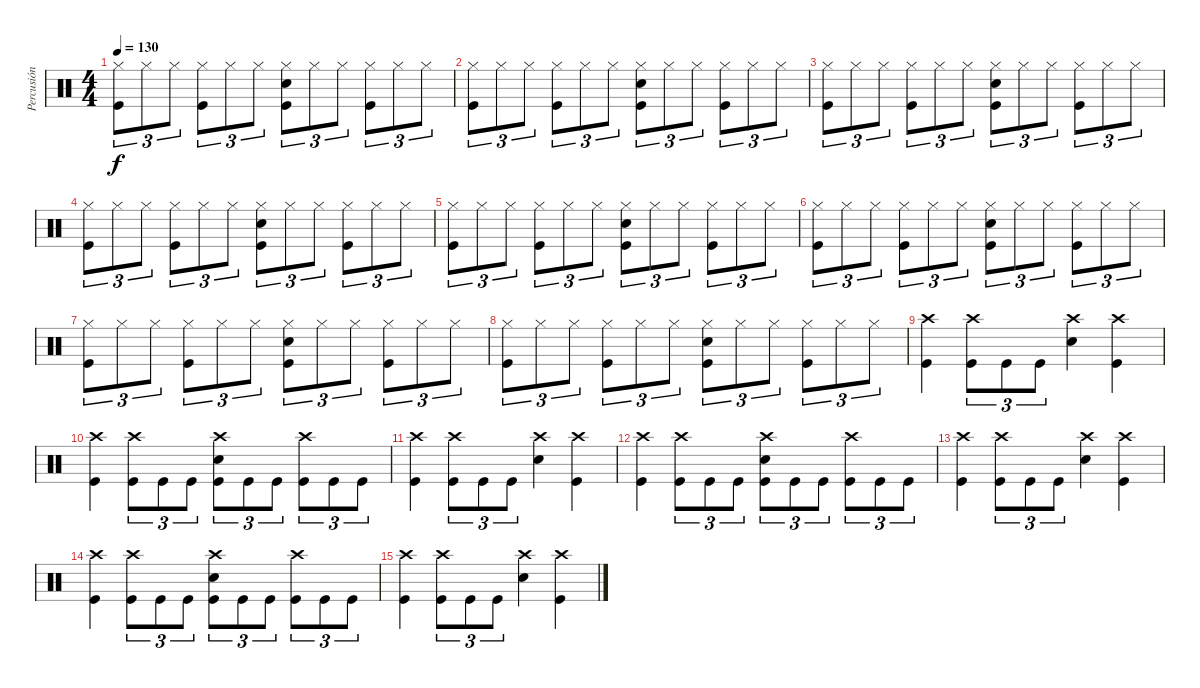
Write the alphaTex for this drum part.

\track ("Percusión" "Percusión") {instrument percussion}
\staff {score}
\articulation defaults
\ts (4 4)
\tempo 130
\clef neutral
\ks c
("Hi-Hat (closed)" "Kick (hit)").8{tu (3 2) dy f} "Hi-Hat (closed)".8{tu (3 2)} "Hi-Hat (closed)".8{tu (3 2)} ("Hi-Hat (closed)" "Kick (hit)").8{tu (3 2)} "Hi-Hat (closed)".8{tu (3 2)} "Hi-Hat (closed)".8{tu (3 2)} ("Hi-Hat (closed)" "Snare (hit) 2" "Kick (hit)").8{tu (3 2)} "Hi-Hat (closed)".8{tu (3 2)} "Hi-Hat (closed)".8{tu (3 2)} ("Hi-Hat (closed)" "Kick (hit)").8{tu (3 2)} "Hi-Hat (closed)".8{tu (3 2)} "Hi-Hat (closed)".8{tu (3 2)} |
("Hi-Hat (closed)" "Kick (hit)").8{tu (3 2)} "Hi-Hat (closed)".8{tu (3 2)} "Hi-Hat (closed)".8{tu (3 2)} ("Hi-Hat (closed)" "Kick (hit)").8{tu (3 2)} "Hi-Hat (closed)".8{tu (3 2)} "Hi-Hat (closed)".8{tu (3 2)} ("Hi-Hat (closed)" "Snare (hit) 2" "Kick (hit)").8{tu (3 2)} "Hi-Hat (closed)".8{tu (3 2)} "Hi-Hat (closed)".8{tu (3 2)} ("Hi-Hat (closed)" "Kick (hit)").8{tu (3 2)} "Hi-Hat (closed)".8{tu (3 2)} "Hi-Hat (closed)".8{tu (3 2)} |
("Hi-Hat (closed)" "Kick (hit)").8{tu (3 2)} "Hi-Hat (closed)".8{tu (3 2)} "Hi-Hat (closed)".8{tu (3 2)} ("Hi-Hat (closed)" "Kick (hit)").8{tu (3 2)} "Hi-Hat (closed)".8{tu (3 2)} "Hi-Hat (closed)".8{tu (3 2)} ("Hi-Hat (closed)" "Snare (hit) 2" "Kick (hit)").8{tu (3 2)} "Hi-Hat (closed)".8{tu (3 2)} "Hi-Hat (closed)".8{tu (3 2)} ("Hi-Hat (closed)" "Kick (hit)").8{tu (3 2)} "Hi-Hat (closed)".8{tu (3 2)} "Hi-Hat (closed)".8{tu (3 2)} |
("Hi-Hat (closed)" "Kick (hit)").8{tu (3 2)} "Hi-Hat (closed)".8{tu (3 2)} "Hi-Hat (closed)".8{tu (3 2)} ("Hi-Hat (closed)" "Kick (hit)").8{tu (3 2)} "Hi-Hat (closed)".8{tu (3 2)} "Hi-Hat (closed)".8{tu (3 2)} ("Hi-Hat (closed)" "Snare (hit) 2" "Kick (hit)").8{tu (3 2)} "Hi-Hat (closed)".8{tu (3 2)} "Hi-Hat (closed)".8{tu (3 2)} ("Hi-Hat (closed)" "Kick (hit)").8{tu (3 2)} "Hi-Hat (closed)".8{tu (3 2)} "Hi-Hat (closed)".8{tu (3 2)} |
("Hi-Hat (closed)" "Kick (hit)").8{tu (3 2)} "Hi-Hat (closed)".8{tu (3 2)} "Hi-Hat (closed)".8{tu (3 2)} ("Hi-Hat (closed)" "Kick (hit)").8{tu (3 2)} "Hi-Hat (closed)".8{tu (3 2)} "Hi-Hat (closed)".8{tu (3 2)} ("Hi-Hat (closed)" "Snare (hit) 2" "Kick (hit)").8{tu (3 2)} "Hi-Hat (closed)".8{tu (3 2)} "Hi-Hat (closed)".8{tu (3 2)} ("Hi-Hat (closed)" "Kick (hit)").8{tu (3 2)} "Hi-Hat (closed)".8{tu (3 2)} "Hi-Hat (closed)".8{tu (3 2)} |
("Hi-Hat (closed)" "Kick (hit)").8{tu (3 2)} "Hi-Hat (closed)".8{tu (3 2)} "Hi-Hat (closed)".8{tu (3 2)} ("Hi-Hat (closed)" "Kick (hit)").8{tu (3 2)} "Hi-Hat (closed)".8{tu (3 2)} "Hi-Hat (closed)".8{tu (3 2)} ("Hi-Hat (closed)" "Snare (hit) 2" "Kick (hit)").8{tu (3 2)} "Hi-Hat (closed)".8{tu (3 2)} "Hi-Hat (closed)".8{tu (3 2)} ("Hi-Hat (closed)" "Kick (hit)").8{tu (3 2)} "Hi-Hat (closed)".8{tu (3 2)} "Hi-Hat (closed)".8{tu (3 2)} |
("Hi-Hat (closed)" "Kick (hit)").8{tu (3 2)} "Hi-Hat (closed)".8{tu (3 2)} "Hi-Hat (closed)".8{tu (3 2)} ("Hi-Hat (closed)" "Kick (hit)").8{tu (3 2)} "Hi-Hat (closed)".8{tu (3 2)} "Hi-Hat (closed)".8{tu (3 2)} ("Hi-Hat (closed)" "Snare (hit) 2" "Kick (hit)").8{tu (3 2)} "Hi-Hat (closed)".8{tu (3 2)} "Hi-Hat (closed)".8{tu (3 2)} ("Hi-Hat (closed)" "Kick (hit)").8{tu (3 2)} "Hi-Hat (closed)".8{tu (3 2)} "Hi-Hat (closed)".8{tu (3 2)} |
("Hi-Hat (closed)" "Kick (hit)").8{tu (3 2)} "Hi-Hat (closed)".8{tu (3 2)} "Hi-Hat (closed)".8{tu (3 2)} ("Hi-Hat (closed)" "Kick (hit)").8{tu (3 2)} "Hi-Hat (closed)".8{tu (3 2)} "Hi-Hat (closed)".8{tu (3 2)} ("Hi-Hat (closed)" "Snare (hit) 2" "Kick (hit)").8{tu (3 2)} "Hi-Hat (closed)".8{tu (3 2)} "Hi-Hat (closed)".8{tu (3 2)} ("Hi-Hat (closed)" "Kick (hit)").8{tu (3 2)} "Hi-Hat (closed)".8{tu (3 2)} "Hi-Hat (closed)".8{tu (3 2)} |
("Crash high (hit)" "Kick (hit)").4 ("Crash high (hit)" "Kick (hit)").8{tu (3 2)} "Kick (hit)".8{tu (3 2)} "Kick (hit)".8{tu (3 2)} ("Snare (hit) 2" "Crash high (hit)").4 ("Crash high (hit)" "Kick (hit)").4 |
("Crash high (hit)" "Kick (hit)").4 ("Crash high (hit)" "Kick (hit)").8{tu (3 2)} "Kick (hit)".8{tu (3 2)} "Kick (hit)".8{tu (3 2)} ("Snare (hit) 2" "Crash high (hit)" "Kick (hit)").8{tu (3 2)} "Kick (hit)".8{tu (3 2)} "Kick (hit)".8{tu (3 2)} ("Crash high (hit)" "Kick (hit)").8{tu (3 2)} "Kick (hit)".8{tu (3 2)} "Kick (hit)".8{tu (3 2)} |
("Crash high (hit)" "Kick (hit)").4 ("Crash high (hit)" "Kick (hit)").8{tu (3 2)} "Kick (hit)".8{tu (3 2)} "Kick (hit)".8{tu (3 2)} ("Snare (hit) 2" "Crash high (hit)").4 ("Crash high (hit)" "Kick (hit)").4 |
("Crash high (hit)" "Kick (hit)").4 ("Crash high (hit)" "Kick (hit)").8{tu (3 2)} "Kick (hit)".8{tu (3 2)} "Kick (hit)".8{tu (3 2)} ("Snare (hit) 2" "Crash high (hit)" "Kick (hit)").8{tu (3 2)} "Kick (hit)".8{tu (3 2)} "Kick (hit)".8{tu (3 2)} ("Crash high (hit)" "Kick (hit)").8{tu (3 2)} "Kick (hit)".8{tu (3 2)} "Kick (hit)".8{tu (3 2)} |
("Crash high (hit)" "Kick (hit)").4 ("Crash high (hit)" "Kick (hit)").8{tu (3 2)} "Kick (hit)".8{tu (3 2)} "Kick (hit)".8{tu (3 2)} ("Snare (hit) 2" "Crash high (hit)").4 ("Crash high (hit)" "Kick (hit)").4 |
("Crash high (hit)" "Kick (hit)").4 ("Crash high (hit)" "Kick (hit)").8{tu (3 2)} "Kick (hit)".8{tu (3 2)} "Kick (hit)".8{tu (3 2)} ("Snare (hit) 2" "Crash high (hit)" "Kick (hit)").8{tu (3 2)} "Kick (hit)".8{tu (3 2)} "Kick (hit)".8{tu (3 2)} ("Crash high (hit)" "Kick (hit)").8{tu (3 2)} "Kick (hit)".8{tu (3 2)} "Kick (hit)".8{tu (3 2)} |
("Crash high (hit)" "Kick (hit)").4 ("Crash high (hit)" "Kick (hit)").8{tu (3 2)} "Kick (hit)".8{tu (3 2)} "Kick (hit)".8{tu (3 2)} ("Snare (hit) 2" "Crash high (hit)").4 ("Crash high (hit)" "Kick (hit)").4
